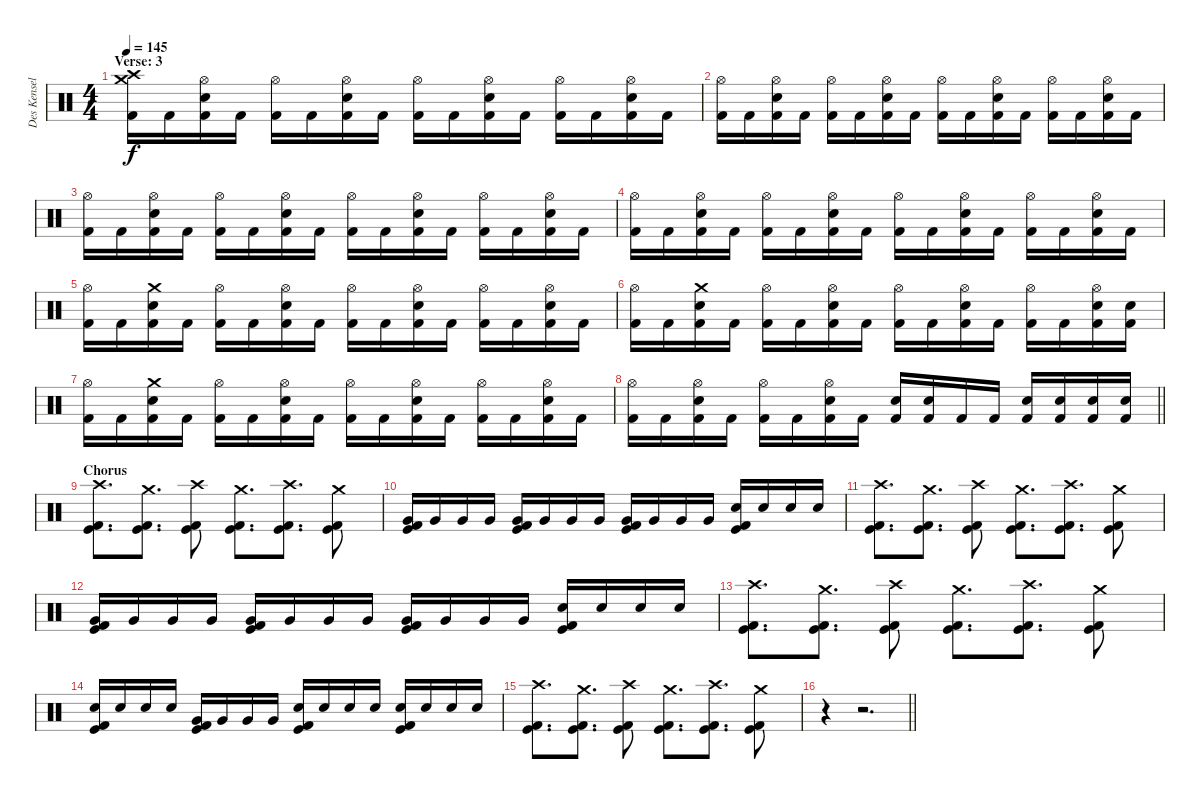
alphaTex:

\track ("Des Kensel" "Des Kensel") {instrument percussion}
\staff {score}
\articulation defaults
\ts (4 4)
\section ("" "Verse: 3")
\tempo 145
\clef neutral
\ks c
("Crash medium (hit)" "Crash high (hit)" "Kick (hit) 2").16{dy f volume 16} "Kick (hit) 2".16 ("Hi-Hat (open)" "Electric Snare (hit)" "Kick (hit) 2").16 "Kick (hit) 2".16 ("Hi-Hat (open)" "Kick (hit) 2").16 "Kick (hit) 2".16 ("Hi-Hat (open)" "Electric Snare (hit)" "Kick (hit) 2").16 "Kick (hit) 2".16 ("Hi-Hat (open)" "Kick (hit) 2").16 "Kick (hit) 2".16 ("Hi-Hat (open)" "Electric Snare (hit)" "Kick (hit) 2").16 "Kick (hit) 2".16 ("Hi-Hat (open)" "Kick (hit) 2").16 "Kick (hit) 2".16 ("Hi-Hat (open)" "Electric Snare (hit)" "Kick (hit) 2").16 "Kick (hit) 2".16 |
("Hi-Hat (open)" "Kick (hit) 2").16 "Kick (hit) 2".16 ("Hi-Hat (open)" "Electric Snare (hit)" "Kick (hit) 2").16 "Kick (hit) 2".16 ("Hi-Hat (open)" "Kick (hit) 2").16 "Kick (hit) 2".16 ("Hi-Hat (open)" "Electric Snare (hit)" "Kick (hit) 2").16 "Kick (hit) 2".16 ("Hi-Hat (open)" "Kick (hit) 2").16 "Kick (hit) 2".16 ("Hi-Hat (open)" "Electric Snare (hit)" "Kick (hit) 2").16 "Kick (hit) 2".16 ("Hi-Hat (open)" "Kick (hit) 2").16 "Kick (hit) 2".16 ("Hi-Hat (open)" "Electric Snare (hit)" "Kick (hit) 2").16 "Kick (hit) 2".16 |
("Hi-Hat (open)" "Kick (hit) 2").16 "Kick (hit) 2".16 ("Hi-Hat (open)" "Electric Snare (hit)" "Kick (hit) 2").16 "Kick (hit) 2".16 ("Hi-Hat (open)" "Kick (hit) 2").16 "Kick (hit) 2".16 ("Hi-Hat (open)" "Electric Snare (hit)" "Kick (hit) 2").16 "Kick (hit) 2".16 ("Hi-Hat (open)" "Kick (hit) 2").16 "Kick (hit) 2".16 ("Hi-Hat (open)" "Electric Snare (hit)" "Kick (hit) 2").16 "Kick (hit) 2".16 ("Hi-Hat (open)" "Kick (hit) 2").16 "Kick (hit) 2".16 ("Hi-Hat (open)" "Electric Snare (hit)" "Kick (hit) 2").16 "Kick (hit) 2".16 |
("Hi-Hat (open)" "Kick (hit) 2").16 "Kick (hit) 2".16 ("Hi-Hat (open)" "Electric Snare (hit)" "Kick (hit) 2").16 "Kick (hit) 2".16 ("Hi-Hat (open)" "Kick (hit) 2").16 "Kick (hit) 2".16 ("Hi-Hat (open)" "Electric Snare (hit)" "Kick (hit) 2").16 "Kick (hit) 2".16 ("Hi-Hat (open)" "Kick (hit) 2").16 "Kick (hit) 2".16 ("Hi-Hat (open)" "Electric Snare (hit)" "Kick (hit) 2").16 "Kick (hit) 2".16 ("Hi-Hat (open)" "Kick (hit) 2").16 "Kick (hit) 2".16 ("Hi-Hat (open)" "Electric Snare (hit)" "Kick (hit) 2").16 "Kick (hit) 2".16 |
("Hi-Hat (open)" "Kick (hit) 2").16 "Kick (hit) 2".16 ("Crash medium (hit)" "Electric Snare (hit)" "Kick (hit) 2").16 "Kick (hit) 2".16 ("Hi-Hat (open)" "Kick (hit) 2").16 "Kick (hit) 2".16 ("Hi-Hat (open)" "Electric Snare (hit)" "Kick (hit) 2").16 "Kick (hit) 2".16 ("Hi-Hat (open)" "Kick (hit) 2").16 "Kick (hit) 2".16 ("Hi-Hat (open)" "Electric Snare (hit)" "Kick (hit) 2").16 "Kick (hit) 2".16 ("Hi-Hat (open)" "Kick (hit) 2").16 "Kick (hit) 2".16 ("Hi-Hat (open)" "Electric Snare (hit)" "Kick (hit) 2").16 "Kick (hit) 2".16 |
("Hi-Hat (open)" "Kick (hit) 2").16 "Kick (hit) 2".16 ("Crash medium (hit)" "Electric Snare (hit)" "Kick (hit) 2").16 "Kick (hit) 2".16 ("Hi-Hat (open)" "Kick (hit) 2").16 "Kick (hit) 2".16 ("Hi-Hat (open)" "Electric Snare (hit)" "Kick (hit) 2").16 "Kick (hit) 2".16 ("Hi-Hat (open)" "Kick (hit) 2").16 "Kick (hit) 2".16 ("Hi-Hat (open)" "Electric Snare (hit)" "Kick (hit) 2").16 "Kick (hit) 2".16 ("Hi-Hat (open)" "Kick (hit) 2").16 "Kick (hit) 2".16 ("Hi-Hat (open)" "Electric Snare (hit)" "Kick (hit) 2").16 ("Electric Snare (hit)" "Kick (hit) 2").16 |
("Hi-Hat (open)" "Kick (hit) 2").16 "Kick (hit) 2".16 ("Crash medium (hit)" "Electric Snare (hit)" "Kick (hit) 2").16 "Kick (hit) 2".16 ("Hi-Hat (open)" "Kick (hit) 2").16 "Kick (hit) 2".16 ("Hi-Hat (open)" "Electric Snare (hit)" "Kick (hit) 2").16 "Kick (hit) 2".16 ("Hi-Hat (open)" "Kick (hit) 2").16 "Kick (hit) 2".16 ("Hi-Hat (open)" "Electric Snare (hit)" "Kick (hit) 2").16 "Kick (hit) 2".16 ("Hi-Hat (open)" "Kick (hit) 2").16 "Kick (hit) 2".16 ("Hi-Hat (open)" "Electric Snare (hit)" "Kick (hit) 2").16 "Kick (hit) 2".16 |
\barLineRight lightlight
("Hi-Hat (open)" "Kick (hit) 2").16 "Kick (hit) 2".16 ("Hi-Hat (open)" "Electric Snare (hit)" "Kick (hit) 2").16 "Kick (hit) 2".16 ("Hi-Hat (open)" "Kick (hit) 2").16 "Kick (hit) 2".16 ("Hi-Hat (open)" "Electric Snare (hit)" "Kick (hit) 2").16 "Kick (hit) 2".16 ("Electric Snare (hit)" "Kick (hit) 2").16 ("Electric Snare (hit)" "Kick (hit) 2").16 "Kick (hit) 2".16 "Kick (hit) 2".16 ("Electric Snare (hit)" "Kick (hit) 2").16 ("Electric Snare (hit)" "Kick (hit) 2").16 ("Electric Snare (hit)" "Kick (hit) 2").16 ("Electric Snare (hit)" "Kick (hit) 2").16 |
\section ("" "Chorus")
("Crash high (hit)" "Kick (hit)" "Kick (hit) 2").8{d} ("Crash medium (hit)" "Kick (hit)" "Kick (hit) 2").8{d} ("Crash high (hit)" "Kick (hit)" "Kick (hit) 2").8 ("Crash medium (hit)" "Kick (hit)" "Kick (hit) 2").8{d} ("Crash high (hit)" "Kick (hit)" "Kick (hit) 2").8{d} ("Crash medium (hit)" "Kick (hit)" "Kick (hit) 2").8 |
("Very Low Tom (hit)" "Kick (hit)" "Kick (hit) 2").16 "Very Low Tom (hit)".16 "Very Low Tom (hit)".16 "Very Low Tom (hit)".16 ("Very Low Tom (hit)" "Kick (hit)" "Kick (hit) 2").16 "Very Low Tom (hit)".16 "Very Low Tom (hit)".16 "Very Low Tom (hit)".16 ("Very Low Tom (hit)" "Kick (hit)" "Kick (hit) 2").16 "Very Low Tom (hit)".16 "Very Low Tom (hit)".16 "Very Low Tom (hit)".16 ("Electric Snare (hit)" "Kick (hit)" "Kick (hit) 2").16 "Electric Snare (hit)".16 "Electric Snare (hit)".16 "Electric Snare (hit)".16 |
("Crash high (hit)" "Kick (hit)" "Kick (hit) 2").8{d} ("Crash medium (hit)" "Kick (hit)" "Kick (hit) 2").8{d} ("Crash high (hit)" "Kick (hit)" "Kick (hit) 2").8 ("Crash medium (hit)" "Kick (hit)" "Kick (hit) 2").8{d} ("Crash high (hit)" "Kick (hit)" "Kick (hit) 2").8{d} ("Crash medium (hit)" "Kick (hit)" "Kick (hit) 2").8 |
("Very Low Tom (hit)" "Kick (hit)" "Kick (hit) 2").16 "Very Low Tom (hit)".16 "Very Low Tom (hit)".16 "Very Low Tom (hit)".16 ("Very Low Tom (hit)" "Kick (hit)" "Kick (hit) 2").16 "Very Low Tom (hit)".16 "Very Low Tom (hit)".16 "Very Low Tom (hit)".16 ("Very Low Tom (hit)" "Kick (hit)" "Kick (hit) 2").16 "Very Low Tom (hit)".16 "Very Low Tom (hit)".16 "Very Low Tom (hit)".16 ("Electric Snare (hit)" "Kick (hit)" "Kick (hit) 2").16 "Electric Snare (hit)".16 "Electric Snare (hit)".16 "Electric Snare (hit)".16 |
("Crash high (hit)" "Kick (hit)" "Kick (hit) 2").8{d} ("Crash medium (hit)" "Kick (hit)" "Kick (hit) 2").8{d} ("Crash high (hit)" "Kick (hit)" "Kick (hit) 2").8 ("Crash medium (hit)" "Kick (hit)" "Kick (hit) 2").8{d} ("Crash high (hit)" "Kick (hit)" "Kick (hit) 2").8{d} ("Crash medium (hit)" "Kick (hit)" "Kick (hit) 2").8 |
("Electric Snare (hit)" "Kick (hit)" "Kick (hit) 2").16 "Electric Snare (hit)".16 "Electric Snare (hit)".16 "Electric Snare (hit)".16 ("Very Low Tom (hit)" "Kick (hit)" "Kick (hit) 2").16 "Very Low Tom (hit)".16 "Very Low Tom (hit)".16 "Very Low Tom (hit)".16 ("Electric Snare (hit)" "Kick (hit)" "Kick (hit) 2").16 "Electric Snare (hit)".16 "Electric Snare (hit)".16 "Electric Snare (hit)".16 ("Electric Snare (hit)" "Kick (hit)" "Kick (hit) 2").16 "Electric Snare (hit)".16 "Electric Snare (hit)".16 "Electric Snare (hit)".16 |
("Crash high (hit)" "Kick (hit)" "Kick (hit) 2").8{d} ("Crash medium (hit)" "Kick (hit)" "Kick (hit) 2").8{d} ("Crash high (hit)" "Kick (hit)" "Kick (hit) 2").8 ("Crash medium (hit)" "Kick (hit)" "Kick (hit) 2").8{d} ("Crash high (hit)" "Kick (hit)" "Kick (hit) 2").8{d} ("Crash medium (hit)" "Kick (hit)" "Kick (hit) 2").8 |
\barLineRight lightlight
r.4 r.2{d volume 0}
